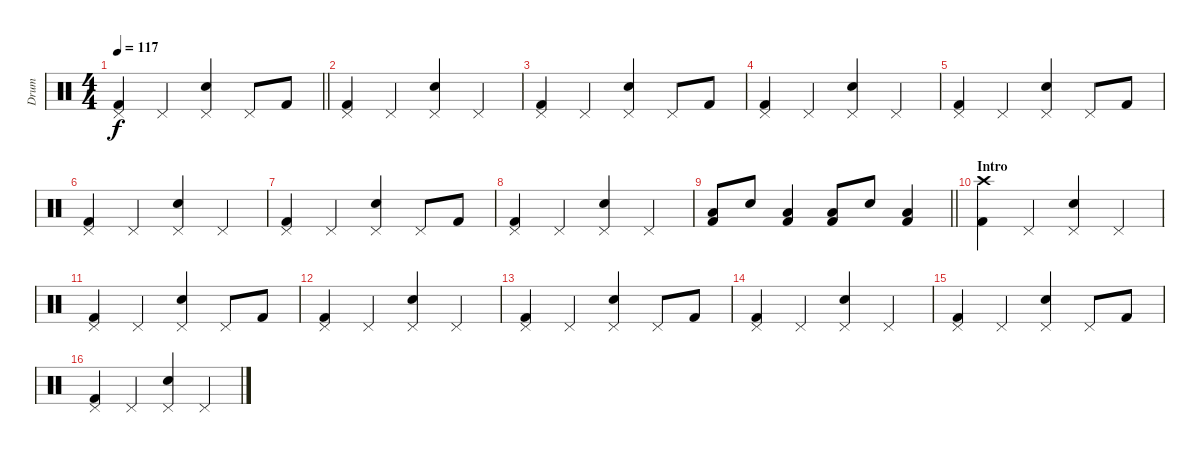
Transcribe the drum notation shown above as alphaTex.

\track ("Drum" "Drum") {instrument percussion}
\staff {score}
\articulation defaults
\ts (4 4)
\tempo 117
\clef neutral
\barLineRight lightlight
\ks c
("Pedal Hi-Hat (hit)" "Kick (hit) 2").4{dy f} "Pedal Hi-Hat (hit)".4 ("Pedal Hi-Hat (hit)" "Electric Snare (hit)").4 "Pedal Hi-Hat (hit)".8 "Kick (hit) 2".8 |
("Pedal Hi-Hat (hit)" "Kick (hit) 2").4 "Pedal Hi-Hat (hit)".4 ("Pedal Hi-Hat (hit)" "Electric Snare (hit)").4 "Pedal Hi-Hat (hit)".4 |
("Pedal Hi-Hat (hit)" "Kick (hit) 2").4 "Pedal Hi-Hat (hit)".4 ("Pedal Hi-Hat (hit)" "Electric Snare (hit)").4 "Pedal Hi-Hat (hit)".8 "Kick (hit) 2".8 |
("Pedal Hi-Hat (hit)" "Kick (hit) 2").4 "Pedal Hi-Hat (hit)".4 ("Pedal Hi-Hat (hit)" "Electric Snare (hit)").4 "Pedal Hi-Hat (hit)".4 |
("Pedal Hi-Hat (hit)" "Kick (hit) 2").4 "Pedal Hi-Hat (hit)".4 ("Pedal Hi-Hat (hit)" "Electric Snare (hit)").4 "Pedal Hi-Hat (hit)".8 "Kick (hit) 2".8 |
("Pedal Hi-Hat (hit)" "Kick (hit) 2").4 "Pedal Hi-Hat (hit)".4 ("Pedal Hi-Hat (hit)" "Electric Snare (hit)").4 "Pedal Hi-Hat (hit)".4 |
("Pedal Hi-Hat (hit)" "Kick (hit) 2").4 "Pedal Hi-Hat (hit)".4 ("Pedal Hi-Hat (hit)" "Electric Snare (hit)").4 "Pedal Hi-Hat (hit)".8 "Kick (hit) 2".8 |
("Pedal Hi-Hat (hit)" "Kick (hit) 2").4 "Pedal Hi-Hat (hit)".4 ("Pedal Hi-Hat (hit)" "Electric Snare (hit)").4 "Pedal Hi-Hat (hit)".4 |
\barLineRight lightlight
("Low Floor Tom (hit)" "Kick (hit) 2").8 "Electric Snare (hit)".8 ("Low Floor Tom (hit)" "Kick (hit) 2").4 ("Low Floor Tom (hit)" "Kick (hit) 2").8 "Electric Snare (hit)".8 ("Low Floor Tom (hit)" "Kick (hit) 2").4 |
\section ("" "Intro")
("Crash high (hit)" "Kick (hit) 2").4 "Pedal Hi-Hat (hit)".4 ("Pedal Hi-Hat (hit)" "Electric Snare (hit)").4 "Pedal Hi-Hat (hit)".4 |
("Pedal Hi-Hat (hit)" "Kick (hit) 2").4 "Pedal Hi-Hat (hit)".4 ("Pedal Hi-Hat (hit)" "Electric Snare (hit)").4 "Pedal Hi-Hat (hit)".8 "Kick (hit) 2".8 |
("Pedal Hi-Hat (hit)" "Kick (hit) 2").4 "Pedal Hi-Hat (hit)".4 ("Pedal Hi-Hat (hit)" "Electric Snare (hit)").4 "Pedal Hi-Hat (hit)".4 |
("Pedal Hi-Hat (hit)" "Kick (hit) 2").4 "Pedal Hi-Hat (hit)".4 ("Pedal Hi-Hat (hit)" "Electric Snare (hit)").4 "Pedal Hi-Hat (hit)".8 "Kick (hit) 2".8 |
("Pedal Hi-Hat (hit)" "Kick (hit) 2").4 "Pedal Hi-Hat (hit)".4 ("Pedal Hi-Hat (hit)" "Electric Snare (hit)").4 "Pedal Hi-Hat (hit)".4 |
("Pedal Hi-Hat (hit)" "Kick (hit) 2").4 "Pedal Hi-Hat (hit)".4 ("Pedal Hi-Hat (hit)" "Electric Snare (hit)").4 "Pedal Hi-Hat (hit)".8 "Kick (hit) 2".8 |
("Pedal Hi-Hat (hit)" "Kick (hit) 2").4 "Pedal Hi-Hat (hit)".4 ("Pedal Hi-Hat (hit)" "Electric Snare (hit)").4 "Pedal Hi-Hat (hit)".4
